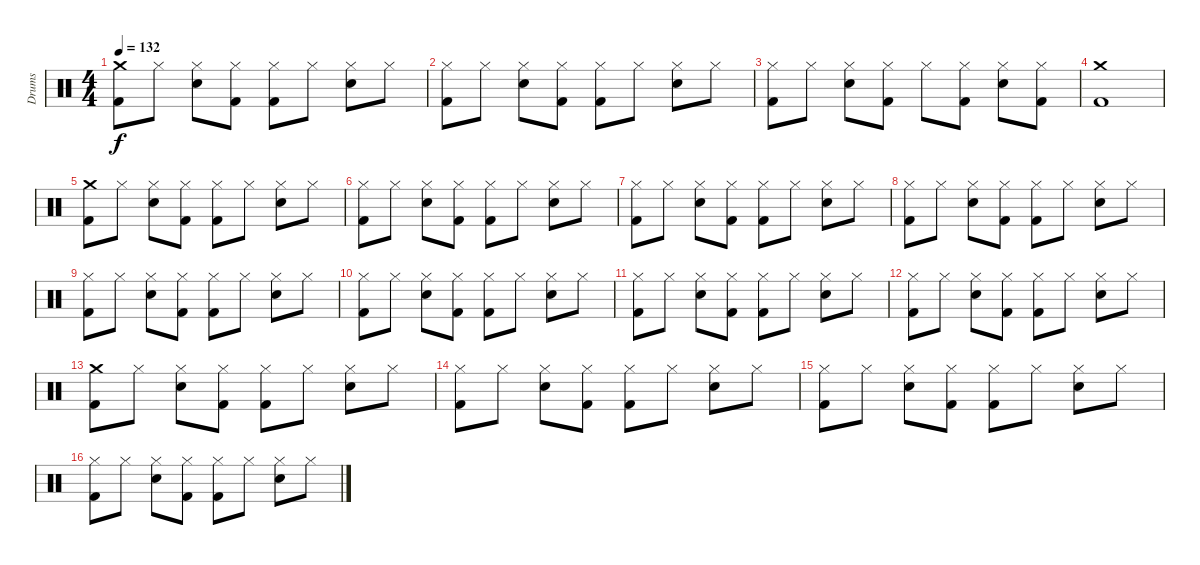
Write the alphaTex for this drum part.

\track ("Drums" "Drums") {instrument percussion}
\staff {score}
\articulation defaults
\ts (4 4)
\tempo 132
\clef neutral
\ks c
("Crash medium (hit)" "Kick (hit) 2").8{dy f} "Hi-Hat (closed)".8 ("Hi-Hat (closed)" "Snare (hit) 2").8 ("Hi-Hat (closed)" "Kick (hit) 2").8 ("Hi-Hat (closed)" "Kick (hit) 2").8 "Hi-Hat (closed)".8 ("Hi-Hat (closed)" "Snare (hit) 2").8 "Hi-Hat (closed)".8 |
("Hi-Hat (closed)" "Kick (hit) 2").8 "Hi-Hat (closed)".8 ("Hi-Hat (closed)" "Snare (hit) 2").8 ("Hi-Hat (closed)" "Kick (hit) 2").8 ("Hi-Hat (closed)" "Kick (hit) 2").8 "Hi-Hat (closed)".8 ("Hi-Hat (closed)" "Snare (hit) 2").8 "Hi-Hat (closed)".8 |
("Hi-Hat (closed)" "Kick (hit) 2").8 "Hi-Hat (closed)".8 ("Hi-Hat (closed)" "Snare (hit) 2").8 ("Hi-Hat (closed)" "Kick (hit) 2").8 "Hi-Hat (closed)".8 ("Hi-Hat (closed)" "Kick (hit) 2").8 ("Hi-Hat (closed)" "Snare (hit) 2").8 ("Hi-Hat (closed)" "Kick (hit) 2").8 |
("Crash medium (hit)" "Kick (hit) 2").1 |
("Crash medium (hit)" "Kick (hit) 2").8 "Hi-Hat (closed)".8 ("Hi-Hat (closed)" "Snare (hit) 2").8 ("Hi-Hat (closed)" "Kick (hit) 2").8 ("Hi-Hat (closed)" "Kick (hit) 2").8 "Hi-Hat (closed)".8 ("Hi-Hat (closed)" "Snare (hit) 2").8 "Hi-Hat (closed)".8 |
("Hi-Hat (closed)" "Kick (hit) 2").8 "Hi-Hat (closed)".8 ("Hi-Hat (closed)" "Snare (hit) 2").8 ("Hi-Hat (closed)" "Kick (hit) 2").8 ("Hi-Hat (closed)" "Kick (hit) 2").8 "Hi-Hat (closed)".8 ("Hi-Hat (closed)" "Snare (hit) 2").8 "Hi-Hat (closed)".8 |
("Hi-Hat (closed)" "Kick (hit) 2").8 "Hi-Hat (closed)".8 ("Hi-Hat (closed)" "Snare (hit) 2").8 ("Hi-Hat (closed)" "Kick (hit) 2").8 ("Hi-Hat (closed)" "Kick (hit) 2").8 "Hi-Hat (closed)".8 ("Hi-Hat (closed)" "Snare (hit) 2").8 "Hi-Hat (closed)".8 |
("Hi-Hat (closed)" "Kick (hit) 2").8 "Hi-Hat (closed)".8 ("Hi-Hat (closed)" "Snare (hit) 2").8 ("Hi-Hat (closed)" "Kick (hit) 2").8 ("Hi-Hat (closed)" "Kick (hit) 2").8 "Hi-Hat (closed)".8 ("Hi-Hat (closed)" "Snare (hit) 2").8 "Hi-Hat (closed)".8 |
("Hi-Hat (closed)" "Kick (hit) 2").8 "Hi-Hat (closed)".8 ("Hi-Hat (closed)" "Snare (hit) 2").8 ("Hi-Hat (closed)" "Kick (hit) 2").8 ("Hi-Hat (closed)" "Kick (hit) 2").8 "Hi-Hat (closed)".8 ("Hi-Hat (closed)" "Snare (hit) 2").8 "Hi-Hat (closed)".8 |
("Hi-Hat (closed)" "Kick (hit) 2").8 "Hi-Hat (closed)".8 ("Hi-Hat (closed)" "Snare (hit) 2").8 ("Hi-Hat (closed)" "Kick (hit) 2").8 ("Hi-Hat (closed)" "Kick (hit) 2").8 "Hi-Hat (closed)".8 ("Hi-Hat (closed)" "Snare (hit) 2").8 "Hi-Hat (closed)".8 |
("Hi-Hat (closed)" "Kick (hit) 2").8 "Hi-Hat (closed)".8 ("Hi-Hat (closed)" "Snare (hit) 2").8 ("Hi-Hat (closed)" "Kick (hit) 2").8 ("Hi-Hat (closed)" "Kick (hit) 2").8 "Hi-Hat (closed)".8 ("Hi-Hat (closed)" "Snare (hit) 2").8 "Hi-Hat (closed)".8 |
("Hi-Hat (closed)" "Kick (hit) 2").8 "Hi-Hat (closed)".8 ("Hi-Hat (closed)" "Snare (hit) 2").8 ("Hi-Hat (closed)" "Kick (hit) 2").8 ("Hi-Hat (closed)" "Kick (hit) 2").8 "Hi-Hat (closed)".8 ("Hi-Hat (closed)" "Snare (hit) 2").8 "Hi-Hat (closed)".8 |
("Crash medium (hit)" "Kick (hit) 2").8 "Hi-Hat (closed)".8 ("Hi-Hat (closed)" "Snare (hit) 2").8 ("Hi-Hat (closed)" "Kick (hit) 2").8 ("Hi-Hat (closed)" "Kick (hit) 2").8 "Hi-Hat (closed)".8 ("Hi-Hat (closed)" "Snare (hit) 2").8 "Hi-Hat (closed)".8 |
("Hi-Hat (closed)" "Kick (hit) 2").8 "Hi-Hat (closed)".8 ("Hi-Hat (closed)" "Snare (hit) 2").8 ("Hi-Hat (closed)" "Kick (hit) 2").8 ("Hi-Hat (closed)" "Kick (hit) 2").8 "Hi-Hat (closed)".8 ("Hi-Hat (closed)" "Snare (hit) 2").8 "Hi-Hat (closed)".8 |
("Hi-Hat (closed)" "Kick (hit) 2").8 "Hi-Hat (closed)".8 ("Hi-Hat (closed)" "Snare (hit) 2").8 ("Hi-Hat (closed)" "Kick (hit) 2").8 ("Hi-Hat (closed)" "Kick (hit) 2").8 "Hi-Hat (closed)".8 ("Hi-Hat (closed)" "Snare (hit) 2").8 "Hi-Hat (closed)".8 |
("Hi-Hat (closed)" "Kick (hit) 2").8 "Hi-Hat (closed)".8 ("Hi-Hat (closed)" "Snare (hit) 2").8 ("Hi-Hat (closed)" "Kick (hit) 2").8 ("Hi-Hat (closed)" "Kick (hit) 2").8 "Hi-Hat (closed)".8 ("Hi-Hat (closed)" "Snare (hit) 2").8 "Hi-Hat (closed)".8
